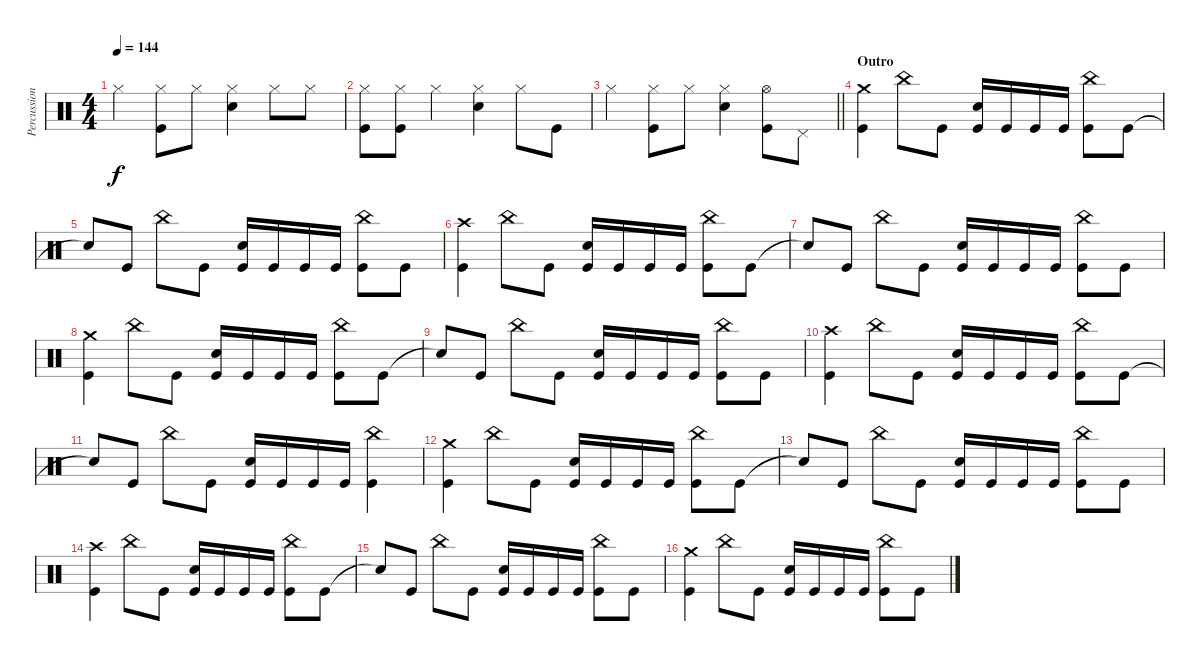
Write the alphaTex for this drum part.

\track ("Percussion" "Percussion") {instrument percussion}
\staff {score}
\articulation defaults
\ts (4 4)
\tempo 144
\clef neutral
\ks c "Hi-Hat (closed)".4{dy f}
("Hi-Hat (closed)" "Kick (hit)").8 "Hi-Hat (closed)".8 ("Hi-Hat (closed)" "Electric Snare (hit)").4 "Hi-Hat (closed)".8 "Hi-Hat (closed)".8 |
("Hi-Hat (closed)" "Kick (hit)").8 ("Hi-Hat (closed)" "Kick (hit)").8 "Hi-Hat (closed)".4 ("Hi-Hat (closed)" "Electric Snare (hit)").4 "Hi-Hat (closed)".8 "Kick (hit)".8 |
\barLineRight lightlight "Hi-Hat (closed)".4
("Hi-Hat (closed)" "Kick (hit)").8 "Hi-Hat (closed)".8 ("Hi-Hat (closed)" "Electric Snare (hit)").4 ("Hi-Hat (open)" "Kick (hit)").8 "Pedal Hi-Hat (hit)".8 |
\section ("" "Outro")
("Crash medium (hit)" "Kick (hit)").4 "China (hit)".8 "Kick (hit)".8 ("Electric Snare (hit)" "Kick (hit)").16 "Kick (hit)".16 "Kick (hit)".16 "Kick (hit)".16 ("China (hit)" "Kick (hit)").8 "Kick (hit)".8 |
"Snare (hit)"{t}.8 "Kick (hit)".8 "China (hit)".8 "Kick (hit)".8 ("Electric Snare (hit)" "Kick (hit)").16 "Kick (hit)".16 "Kick (hit)".16 "Kick (hit)".16 ("China (hit)" "Kick (hit)").8 "Kick (hit)".8 |
("Crash high (hit)" "Kick (hit)").4 "China (hit)".8 "Kick (hit)".8 ("Electric Snare (hit)" "Kick (hit)").16 "Kick (hit)".16 "Kick (hit)".16 "Kick (hit)".16 ("China (hit)" "Kick (hit)").8 "Kick (hit)".8 |
"Snare (hit)"{t}.8 "Kick (hit)".8 "China (hit)".8 "Kick (hit)".8 ("Electric Snare (hit)" "Kick (hit)").16 "Kick (hit)".16 "Kick (hit)".16 "Kick (hit)".16 ("China (hit)" "Kick (hit)").8 "Kick (hit)".8 |
("Crash medium (hit)" "Kick (hit)").4 "China (hit)".8 "Kick (hit)".8 ("Electric Snare (hit)" "Kick (hit)").16 "Kick (hit)".16 "Kick (hit)".16 "Kick (hit)".16 ("China (hit)" "Kick (hit)").8 "Kick (hit)".8 |
"Snare (hit)"{t}.8 "Kick (hit)".8 "China (hit)".8 "Kick (hit)".8 ("Electric Snare (hit)" "Kick (hit)").16 "Kick (hit)".16 "Kick (hit)".16 "Kick (hit)".16 ("China (hit)" "Kick (hit)").8 "Kick (hit)".8 |
("Crash high (hit)" "Kick (hit)").4 "China (hit)".8 "Kick (hit)".8 ("Electric Snare (hit)" "Kick (hit)").16 "Kick (hit)".16 "Kick (hit)".16 "Kick (hit)".16 ("China (hit)" "Kick (hit)").8 "Kick (hit)".8 |
"Snare (hit)"{t}.8 "Kick (hit)".8 "China (hit)".8 "Kick (hit)".8 ("Electric Snare (hit)" "Kick (hit)").16 "Kick (hit)".16 "Kick (hit)".16 "Kick (hit)".16 ("China (hit)" "Kick (hit)").4 |
("Crash medium (hit)" "Kick (hit)").4 "China (hit)".8 "Kick (hit)".8 ("Electric Snare (hit)" "Kick (hit)").16 "Kick (hit)".16 "Kick (hit)".16 "Kick (hit)".16 ("China (hit)" "Kick (hit)").8 "Kick (hit)".8 |
"Snare (hit)"{t}.8 "Kick (hit)".8 "China (hit)".8 "Kick (hit)".8 ("Electric Snare (hit)" "Kick (hit)").16 "Kick (hit)".16 "Kick (hit)".16 "Kick (hit)".16 ("China (hit)" "Kick (hit)").8 "Kick (hit)".8 |
("Crash high (hit)" "Kick (hit)").4 "China (hit)".8 "Kick (hit)".8 ("Electric Snare (hit)" "Kick (hit)").16 "Kick (hit)".16 "Kick (hit)".16 "Kick (hit)".16 ("China (hit)" "Kick (hit)").8 "Kick (hit)".8 |
"Snare (hit)"{t}.8 "Kick (hit)".8 "China (hit)".8 "Kick (hit)".8 ("Electric Snare (hit)" "Kick (hit)").16 "Kick (hit)".16 "Kick (hit)".16 "Kick (hit)".16 ("China (hit)" "Kick (hit)").8 "Kick (hit)".8 |
("Crash medium (hit)" "Kick (hit)").4 "China (hit)".8 "Kick (hit)".8 ("Electric Snare (hit)" "Kick (hit)").16 "Kick (hit)".16 "Kick (hit)".16 "Kick (hit)".16 ("China (hit)" "Kick (hit)").8 "Kick (hit)".8
